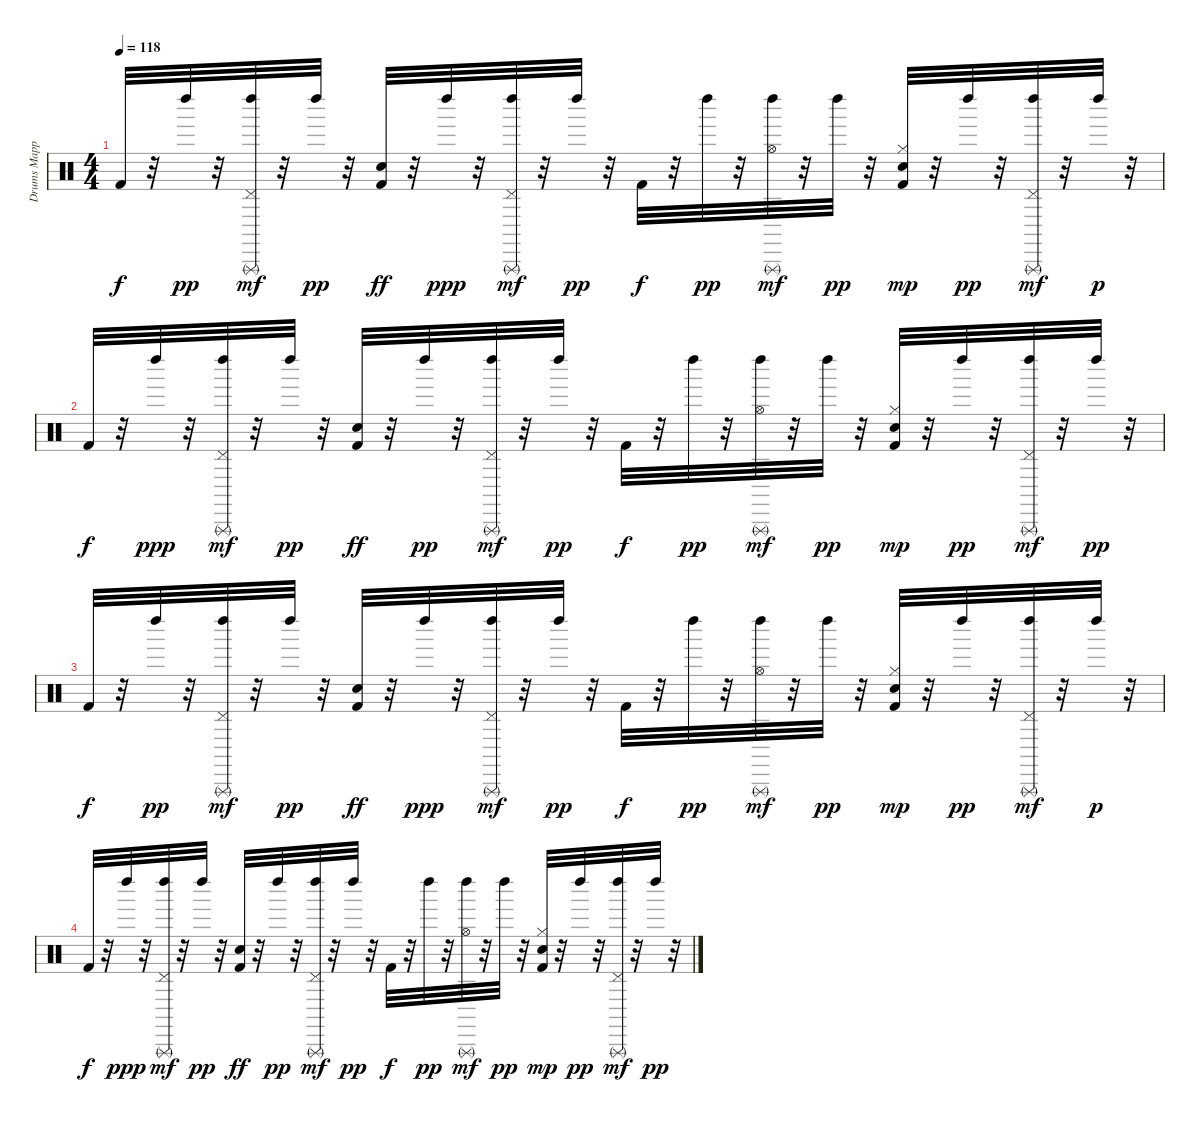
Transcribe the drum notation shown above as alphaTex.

\track ("Drums Mapped*merged" "Drums Mapp") {instrument percussion}
\staff {score}
\articulation defaults
\ts (4 4)
\tempo 118
\clef neutral
\ks c "Kick (hit) 2".32{dy f}
r.32 "Left Maraca (hit)".32{dy pp} r.32 ("Pedal Hi-Hat (hit)" "Left Maraca (hit)" "Triangle (rnute)").32{dy mf} r.32 "Left Maraca (hit)".32{dy pp} r.32 ("Kick (hit) 2" "Snare (hit) 2").32{dy ff} r.32 "Left Maraca (hit)".32{dy ppp} r.32 ("Pedal Hi-Hat (hit)" "Left Maraca (hit)" "Triangle (rnute)").32{dy mf} r.32 "Left Maraca (hit)".32{dy pp} r.32 "Kick (hit) 2".32{dy f} r.32 "Left Maraca (hit)".32{dy pp} r.32 ("Hi-Hat (open)" "Left Maraca (hit)" "Triangle (rnute)").32{dy mf} r.32 "Left Maraca (hit)".32{dy pp} r.32 ("Kick (hit) 2" "Snare (hit) 2" "Hi-Hat (closed)").32{dy mp} r.32 "Left Maraca (hit)".32{dy pp} r.32 ("Pedal Hi-Hat (hit)" "Left Maraca (hit)" "Triangle (rnute)").32{dy mf} r.32 "Left Maraca (hit)".32{dy p} r.32 |
"Kick (hit) 2".32{dy f} r.32 "Left Maraca (hit)".32{dy ppp} r.32 ("Pedal Hi-Hat (hit)" "Left Maraca (hit)" "Triangle (rnute)").32{dy mf} r.32 "Left Maraca (hit)".32{dy pp} r.32 ("Kick (hit) 2" "Snare (hit) 2").32{dy ff} r.32 "Left Maraca (hit)".32{dy pp} r.32 ("Pedal Hi-Hat (hit)" "Left Maraca (hit)" "Triangle (rnute)").32{dy mf} r.32 "Left Maraca (hit)".32{dy pp} r.32 "Kick (hit) 2".32{dy f} r.32 "Left Maraca (hit)".32{dy pp} r.32 ("Hi-Hat (open)" "Left Maraca (hit)" "Triangle (rnute)").32{dy mf} r.32 "Left Maraca (hit)".32{dy pp} r.32 ("Kick (hit) 2" "Snare (hit) 2" "Hi-Hat (closed)").32{dy mp} r.32 "Left Maraca (hit)".32{dy pp} r.32 ("Pedal Hi-Hat (hit)" "Left Maraca (hit)" "Triangle (rnute)").32{dy mf} r.32 "Left Maraca (hit)".32{dy pp} r.32 |
"Kick (hit) 2".32{dy f} r.32 "Left Maraca (hit)".32{dy pp} r.32 ("Pedal Hi-Hat (hit)" "Left Maraca (hit)" "Triangle (rnute)").32{dy mf} r.32 "Left Maraca (hit)".32{dy pp} r.32 ("Kick (hit) 2" "Snare (hit) 2").32{dy ff} r.32 "Left Maraca (hit)".32{dy ppp} r.32 ("Pedal Hi-Hat (hit)" "Left Maraca (hit)" "Triangle (rnute)").32{dy mf} r.32 "Left Maraca (hit)".32{dy pp} r.32 "Kick (hit) 2".32{dy f} r.32 "Left Maraca (hit)".32{dy pp} r.32 ("Hi-Hat (open)" "Left Maraca (hit)" "Triangle (rnute)").32{dy mf} r.32 "Left Maraca (hit)".32{dy pp} r.32 ("Kick (hit) 2" "Snare (hit) 2" "Hi-Hat (closed)").32{dy mp} r.32 "Left Maraca (hit)".32{dy pp} r.32 ("Pedal Hi-Hat (hit)" "Left Maraca (hit)" "Triangle (rnute)").32{dy mf} r.32 "Left Maraca (hit)".32{dy p} r.32 |
"Kick (hit) 2".32{dy f} r.32 "Left Maraca (hit)".32{dy ppp} r.32 ("Pedal Hi-Hat (hit)" "Left Maraca (hit)" "Triangle (rnute)").32{dy mf} r.32 "Left Maraca (hit)".32{dy pp} r.32 ("Kick (hit) 2" "Snare (hit) 2").32{dy ff} r.32 "Left Maraca (hit)".32{dy pp} r.32 ("Pedal Hi-Hat (hit)" "Left Maraca (hit)" "Triangle (rnute)").32{dy mf} r.32 "Left Maraca (hit)".32{dy pp} r.32 "Kick (hit) 2".32{dy f} r.32 "Left Maraca (hit)".32{dy pp} r.32 ("Hi-Hat (open)" "Left Maraca (hit)" "Triangle (rnute)").32{dy mf} r.32 "Left Maraca (hit)".32{dy pp} r.32 ("Kick (hit) 2" "Snare (hit) 2" "Hi-Hat (closed)").32{dy mp} r.32 "Left Maraca (hit)".32{dy pp} r.32 ("Pedal Hi-Hat (hit)" "Left Maraca (hit)" "Triangle (rnute)").32{dy mf} r.32 "Left Maraca (hit)".32{dy pp} r.32
